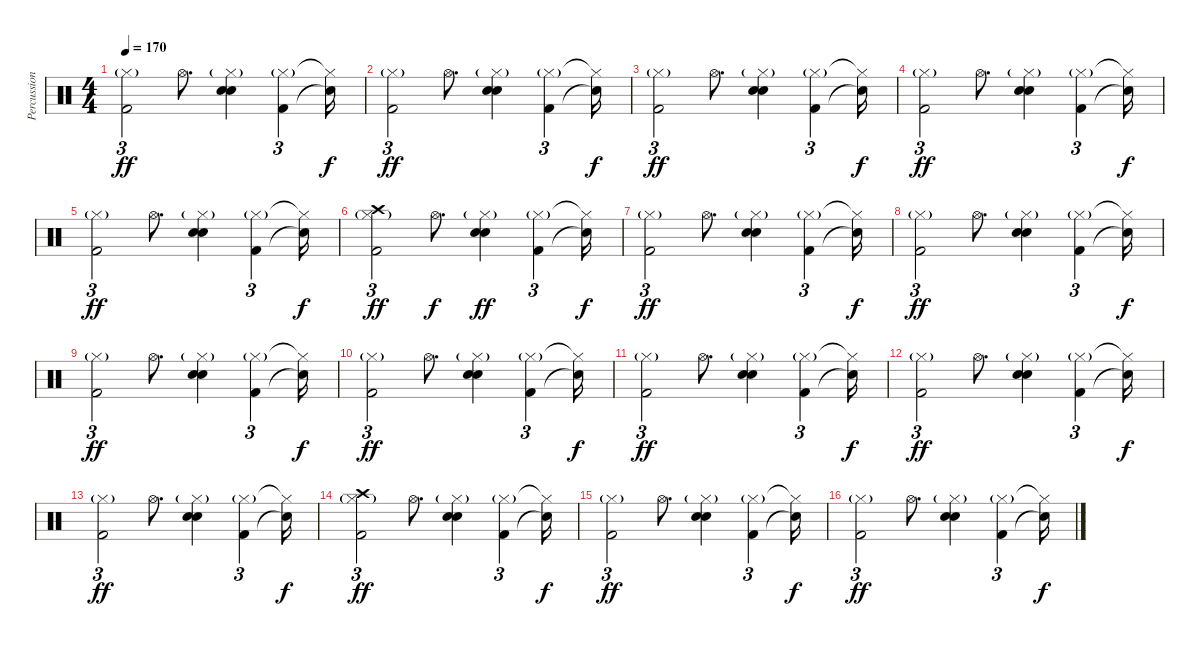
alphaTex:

\track ("Percussion" "Percussion") {instrument percussion bank 127}
\staff {score}
\articulation defaults
\ts (4 4)
\tempo 170
\clef neutral
\ks c
("Hi-Hat (closed)"{g} "Kick (hit) 2").2{tu (3 2) dy ff} "Hi-Hat (open)".8{d} ("Hi-Hat (closed)"{g} "Snare (hit) 2" "Electric Snare (hit)").4 ("Hi-Hat (closed)"{g} "Kick (hit) 2").4{tu (3 2)} ("Hi-Hat (closed)"{t} "Snare (hit)"{t}).16{dy f} |
("Hi-Hat (closed)"{g} "Kick (hit) 2").2{tu (3 2) dy ff} "Hi-Hat (open)".8{d} ("Hi-Hat (closed)"{g} "Snare (hit) 2" "Electric Snare (hit)").4 ("Hi-Hat (closed)"{g} "Kick (hit) 2").4{tu (3 2)} ("Hi-Hat (closed)"{t} "Snare (hit)"{t}).16{dy f} |
("Hi-Hat (closed)"{g} "Kick (hit) 2").2{tu (3 2) dy ff} "Hi-Hat (open)".8{d} ("Hi-Hat (closed)"{g} "Snare (hit) 2" "Electric Snare (hit)").4 ("Hi-Hat (closed)"{g} "Kick (hit) 2").4{tu (3 2)} ("Hi-Hat (closed)"{t} "Snare (hit)"{t}).16{dy f} |
("Hi-Hat (closed)"{g} "Kick (hit) 2").2{tu (3 2) dy ff} "Hi-Hat (open)".8{d} ("Hi-Hat (closed)"{g} "Snare (hit) 2" "Electric Snare (hit)").4 ("Hi-Hat (closed)"{g} "Kick (hit) 2").4{tu (3 2)} ("Hi-Hat (closed)"{t} "Snare (hit)"{t}).16{dy f} |
("Hi-Hat (closed)"{g} "Kick (hit) 2").2{tu (3 2) dy ff} "Hi-Hat (open)".8{d} ("Hi-Hat (closed)"{g} "Snare (hit) 2" "Electric Snare (hit)").4 ("Hi-Hat (closed)"{g} "Kick (hit) 2").4{tu (3 2)} ("Hi-Hat (closed)"{t} "Snare (hit)"{t}).16{dy f} |
("Hi-Hat (closed)"{g} "Kick (hit) 2" "Crash high (hit)").2{tu (3 2) dy ff} "Hi-Hat (open)".8{d dy f} ("Hi-Hat (closed)"{g} "Snare (hit) 2" "Electric Snare (hit)").4{dy ff} ("Hi-Hat (closed)"{g} "Kick (hit) 2").4{tu (3 2)} ("Hi-Hat (closed)"{t} "Snare (hit)"{t}).16{dy f} |
("Hi-Hat (closed)"{g} "Kick (hit) 2").2{tu (3 2) dy ff} "Hi-Hat (open)".8{d} ("Hi-Hat (closed)"{g} "Snare (hit) 2" "Electric Snare (hit)").4 ("Hi-Hat (closed)"{g} "Kick (hit) 2").4{tu (3 2)} ("Hi-Hat (closed)"{t} "Snare (hit)"{t}).16{dy f} |
("Hi-Hat (closed)"{g} "Kick (hit) 2").2{tu (3 2) dy ff} "Hi-Hat (open)".8{d} ("Hi-Hat (closed)"{g} "Snare (hit) 2" "Electric Snare (hit)").4 ("Hi-Hat (closed)"{g} "Kick (hit) 2").4{tu (3 2)} ("Hi-Hat (closed)"{t} "Snare (hit)"{t}).16{dy f} |
("Hi-Hat (closed)"{g} "Kick (hit) 2").2{tu (3 2) dy ff} "Hi-Hat (open)".8{d} ("Hi-Hat (closed)"{g} "Snare (hit) 2" "Electric Snare (hit)").4 ("Hi-Hat (closed)"{g} "Kick (hit) 2").4{tu (3 2)} ("Hi-Hat (closed)"{t} "Snare (hit)"{t}).16{dy f} |
("Hi-Hat (closed)"{g} "Kick (hit) 2").2{tu (3 2) dy ff} "Hi-Hat (open)".8{d} ("Hi-Hat (closed)"{g} "Snare (hit) 2" "Electric Snare (hit)").4 ("Hi-Hat (closed)"{g} "Kick (hit) 2").4{tu (3 2)} ("Hi-Hat (closed)"{t} "Snare (hit)"{t}).16{dy f} |
("Hi-Hat (closed)"{g} "Kick (hit) 2").2{tu (3 2) dy ff} "Hi-Hat (open)".8{d} ("Hi-Hat (closed)"{g} "Snare (hit) 2" "Electric Snare (hit)").4 ("Hi-Hat (closed)"{g} "Kick (hit) 2").4{tu (3 2)} ("Hi-Hat (closed)"{t} "Snare (hit)"{t}).16{dy f} |
("Hi-Hat (closed)"{g} "Kick (hit) 2").2{tu (3 2) dy ff} "Hi-Hat (open)".8{d} ("Hi-Hat (closed)"{g} "Snare (hit) 2" "Electric Snare (hit)").4 ("Hi-Hat (closed)"{g} "Kick (hit) 2").4{tu (3 2)} ("Hi-Hat (closed)"{t} "Snare (hit)"{t}).16{dy f} |
("Hi-Hat (closed)"{g} "Kick (hit) 2").2{tu (3 2) dy ff} "Hi-Hat (open)".8{d} ("Hi-Hat (closed)"{g} "Snare (hit) 2" "Electric Snare (hit)").4 ("Hi-Hat (closed)"{g} "Kick (hit) 2").4{tu (3 2)} ("Hi-Hat (closed)"{t} "Snare (hit)"{t}).16{dy f} |
("Hi-Hat (closed)"{g} "Kick (hit) 2" "Crash high (hit)").2{tu (3 2) dy ff} "Hi-Hat (open)".8{d} ("Hi-Hat (closed)"{g} "Snare (hit) 2" "Electric Snare (hit)").4 ("Hi-Hat (closed)"{g} "Kick (hit) 2").4{tu (3 2)} ("Hi-Hat (closed)"{t} "Snare (hit)"{t}).16{dy f} |
("Hi-Hat (closed)"{g} "Kick (hit) 2").2{tu (3 2) dy ff} "Hi-Hat (open)".8{d} ("Hi-Hat (closed)"{g} "Snare (hit) 2" "Electric Snare (hit)").4 ("Hi-Hat (closed)"{g} "Kick (hit) 2").4{tu (3 2)} ("Hi-Hat (closed)"{t} "Snare (hit)"{t}).16{dy f} |
("Hi-Hat (closed)"{g} "Kick (hit) 2").2{tu (3 2) dy ff} "Hi-Hat (open)".8{d} ("Hi-Hat (closed)"{g} "Snare (hit) 2" "Electric Snare (hit)").4 ("Hi-Hat (closed)"{g} "Kick (hit) 2").4{tu (3 2)} ("Hi-Hat (closed)"{t} "Snare (hit)"{t}).16{dy f}
